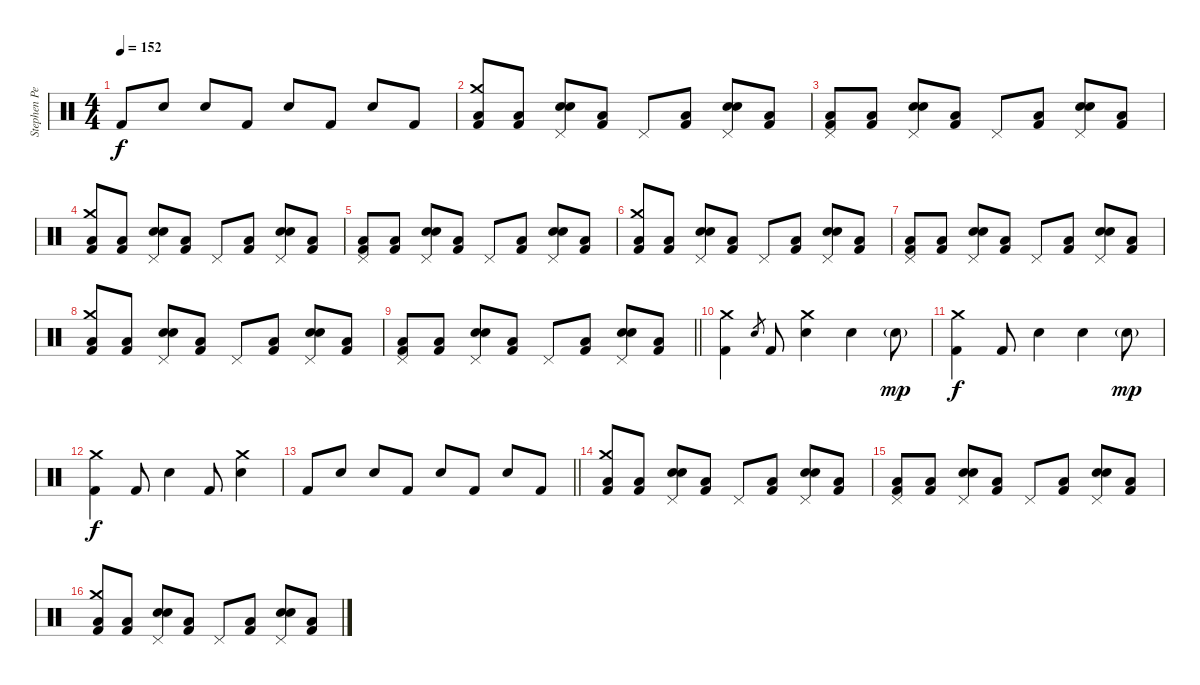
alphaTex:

\track ("Stephen Perkins (Drums)" "Stephen Pe") {instrument percussion}
\staff {score}
\articulation defaults
\ts (4 4)
\tempo 152
\clef neutral
\ks c "Kick (hit) 2".8{dy f} "Electric Snare (hit)".8 "Electric Snare (hit)".8 "Kick (hit) 2".8 "Electric Snare (hit)".8 "Kick (hit) 2".8 "Electric Snare (hit)".8 "Kick (hit) 2".8
|
("Crash medium (hit)" "Low Floor Tom (hit)" "Kick (hit) 2").8 ("Low Floor Tom (hit)" "Kick (hit) 2").8 ("Pedal Hi-Hat (hit)" "Electric Snare (hit)" "Snare (hit) 2").8 ("Low Floor Tom (hit)" "Kick (hit) 2").8 "Pedal Hi-Hat (hit)".8 ("Low Floor Tom (hit)" "Kick (hit) 2").8 ("Pedal Hi-Hat (hit)" "Electric Snare (hit)" "Snare (hit) 2").8 ("Low Tom (hit)" "Kick (hit) 2").8 |
("Pedal Hi-Hat (hit)" "Low Floor Tom (hit)" "Kick (hit) 2").8 ("Low Floor Tom (hit)" "Kick (hit) 2").8 ("Pedal Hi-Hat (hit)" "Electric Snare (hit)" "Snare (hit) 2").8 ("Low Floor Tom (hit)" "Kick (hit) 2").8 "Pedal Hi-Hat (hit)".8 ("Low Floor Tom (hit)" "Kick (hit) 2").8 ("Pedal Hi-Hat (hit)" "Electric Snare (hit)" "Snare (hit) 2").8 ("Low Tom (hit)" "Kick (hit) 2").8 |
("Crash medium (hit)" "Low Floor Tom (hit)" "Kick (hit) 2").8 ("Low Floor Tom (hit)" "Kick (hit) 2").8 ("Pedal Hi-Hat (hit)" "Electric Snare (hit)" "Snare (hit) 2").8 ("Low Floor Tom (hit)" "Kick (hit) 2").8 "Pedal Hi-Hat (hit)".8 ("Low Floor Tom (hit)" "Kick (hit) 2").8 ("Pedal Hi-Hat (hit)" "Electric Snare (hit)" "Snare (hit) 2").8 ("Low Tom (hit)" "Kick (hit) 2").8 |
("Pedal Hi-Hat (hit)" "Low Floor Tom (hit)" "Kick (hit) 2").8 ("Low Floor Tom (hit)" "Kick (hit) 2").8 ("Pedal Hi-Hat (hit)" "Electric Snare (hit)" "Snare (hit) 2").8 ("Low Floor Tom (hit)" "Kick (hit) 2").8 "Pedal Hi-Hat (hit)".8 ("Low Floor Tom (hit)" "Kick (hit) 2").8 ("Pedal Hi-Hat (hit)" "Electric Snare (hit)" "Snare (hit) 2").8 ("Low Tom (hit)" "Kick (hit) 2").8 |
("Crash medium (hit)" "Low Floor Tom (hit)" "Kick (hit) 2").8 ("Low Floor Tom (hit)" "Kick (hit) 2").8 ("Pedal Hi-Hat (hit)" "Electric Snare (hit)" "Snare (hit) 2").8 ("Low Floor Tom (hit)" "Kick (hit) 2").8 "Pedal Hi-Hat (hit)".8 ("Low Floor Tom (hit)" "Kick (hit) 2").8 ("Pedal Hi-Hat (hit)" "Electric Snare (hit)" "Snare (hit) 2").8 ("Low Tom (hit)" "Kick (hit) 2").8 |
("Pedal Hi-Hat (hit)" "Low Floor Tom (hit)" "Kick (hit) 2").8 ("Low Floor Tom (hit)" "Kick (hit) 2").8 ("Pedal Hi-Hat (hit)" "Electric Snare (hit)" "Snare (hit) 2").8 ("Low Floor Tom (hit)" "Kick (hit) 2").8 "Pedal Hi-Hat (hit)".8 ("Low Floor Tom (hit)" "Kick (hit) 2").8 ("Pedal Hi-Hat (hit)" "Electric Snare (hit)" "Snare (hit) 2").8 ("Low Tom (hit)" "Kick (hit) 2").8 |
("Crash medium (hit)" "Low Floor Tom (hit)" "Kick (hit) 2").8 ("Low Floor Tom (hit)" "Kick (hit) 2").8 ("Pedal Hi-Hat (hit)" "Electric Snare (hit)" "Snare (hit) 2").8 ("Low Floor Tom (hit)" "Kick (hit) 2").8 "Pedal Hi-Hat (hit)".8 ("Low Floor Tom (hit)" "Kick (hit) 2").8 ("Pedal Hi-Hat (hit)" "Electric Snare (hit)" "Snare (hit) 2").8 ("Low Tom (hit)" "Kick (hit) 2").8 |
\barLineRight lightlight
("Pedal Hi-Hat (hit)" "Low Floor Tom (hit)" "Kick (hit) 2").8 ("Low Floor Tom (hit)" "Kick (hit) 2").8 ("Pedal Hi-Hat (hit)" "Electric Snare (hit)" "Snare (hit) 2").8 ("Low Floor Tom (hit)" "Kick (hit) 2").8 "Pedal Hi-Hat (hit)".8 ("Low Floor Tom (hit)" "Kick (hit) 2").8 ("Pedal Hi-Hat (hit)" "Electric Snare (hit)" "Snare (hit) 2").8 ("Low Tom (hit)" "Kick (hit) 2").8 |
("Crash medium (hit)" "Kick (hit) 2").4 "Electric Snare (hit)".8{gr} "Kick (hit) 2".8 ("Crash medium (hit)" "Electric Snare (hit)").4 "Electric Snare (hit)".4 "Electric Snare (hit)"{g}.8{dy mp} |
("Crash medium (hit)" "Kick (hit) 2").4{dy f} "Kick (hit) 2".8 "Electric Snare (hit)".4 "Electric Snare (hit)".4 "Electric Snare (hit)"{g}.8{dy mp} |
("Crash medium (hit)" "Kick (hit) 2").4{dy f} "Kick (hit) 2".8 "Electric Snare (hit)".4 "Kick (hit) 2".8 ("Crash medium (hit)" "Electric Snare (hit)").4 |
\barLineRight lightlight "Kick (hit) 2".8 "Electric Snare (hit)".8 "Electric Snare (hit)".8 "Kick (hit) 2".8 "Electric Snare (hit)".8 "Kick (hit) 2".8 "Electric Snare (hit)".8 "Kick (hit) 2".8
|
("Crash medium (hit)" "Low Floor Tom (hit)" "Kick (hit) 2").8 ("Low Floor Tom (hit)" "Kick (hit) 2").8 ("Pedal Hi-Hat (hit)" "Electric Snare (hit)" "Snare (hit) 2").8 ("Low Floor Tom (hit)" "Kick (hit) 2").8 "Pedal Hi-Hat (hit)".8 ("Low Floor Tom (hit)" "Kick (hit) 2").8 ("Pedal Hi-Hat (hit)" "Electric Snare (hit)" "Snare (hit) 2").8 ("Low Tom (hit)" "Kick (hit) 2").8 |
("Pedal Hi-Hat (hit)" "Low Floor Tom (hit)" "Kick (hit) 2").8 ("Low Floor Tom (hit)" "Kick (hit) 2").8 ("Pedal Hi-Hat (hit)" "Electric Snare (hit)" "Snare (hit) 2").8 ("Low Floor Tom (hit)" "Kick (hit) 2").8 "Pedal Hi-Hat (hit)".8 ("Low Floor Tom (hit)" "Kick (hit) 2").8 ("Pedal Hi-Hat (hit)" "Electric Snare (hit)" "Snare (hit) 2").8 ("Low Tom (hit)" "Kick (hit) 2").8 |
("Crash medium (hit)" "Low Floor Tom (hit)" "Kick (hit) 2").8 ("Low Floor Tom (hit)" "Kick (hit) 2").8 ("Pedal Hi-Hat (hit)" "Electric Snare (hit)" "Snare (hit) 2").8 ("Low Floor Tom (hit)" "Kick (hit) 2").8 "Pedal Hi-Hat (hit)".8 ("Low Floor Tom (hit)" "Kick (hit) 2").8 ("Pedal Hi-Hat (hit)" "Electric Snare (hit)" "Snare (hit) 2").8 ("Low Tom (hit)" "Kick (hit) 2").8
